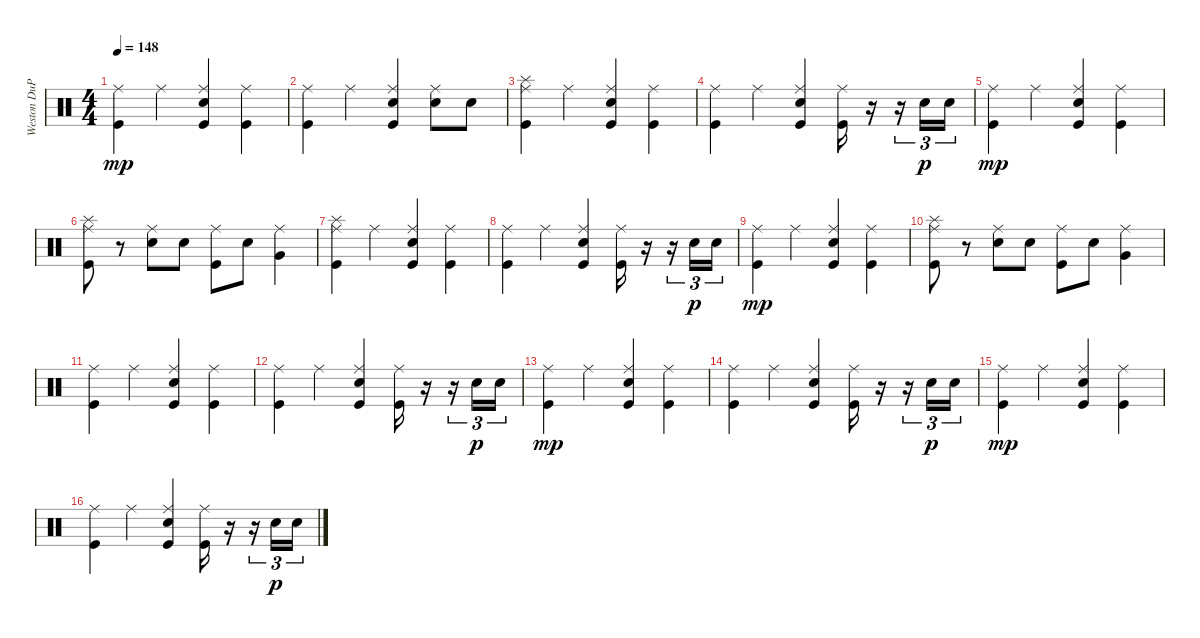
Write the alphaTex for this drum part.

\track ("Weston DuPree" "Weston DuP") {instrument percussion}
\staff {score}
\articulation defaults
\ts (4 4)
\tempo 148
\clef neutral
\ks c
("Kick (hit)" "Ride (middle)").4{dy mp} "Ride (middle)".4 ("Electric Snare (hit)" "Kick (hit)" "Ride (middle)").4 ("Ride (middle)" "Kick (hit)").4 |
("Ride (middle)" "Kick (hit)").4 "Ride (middle)".4 ("Ride (middle)" "Kick (hit)" "Electric Snare (hit)").4 ("Ride (middle)" "Electric Snare (hit)").8 "Electric Snare (hit)".8 |
("Splash (hit)" "Kick (hit)" "Ride (middle)").4 "Ride (middle)".4 ("Electric Snare (hit)" "Kick (hit)" "Ride (middle)").4 ("Ride (middle)" "Kick (hit)").4 |
("Ride (middle)" "Kick (hit)").4 "Ride (middle)".4 ("Ride (middle)" "Kick (hit)" "Electric Snare (hit)").4 ("Ride (middle)" "Kick (hit)").16 r.16 r.16{tu (3 2)} "Snare (hit) 2".16{tu (3 2) dy p} "Snare (hit) 2".16{tu (3 2)} |
("Kick (hit)" "Ride (middle)").4{dy mp} "Ride (middle)".4 ("Electric Snare (hit)" "Kick (hit)" "Ride (middle)").4 ("Ride (middle)" "Kick (hit)").4 |
("Splash (hit)" "Kick (hit)" "Ride (middle)").8 r.8 ("Ride (middle)" "Electric Snare (hit)").8 "Electric Snare (hit)".8 ("Ride (middle)" "Kick (hit)").8 "Electric Snare (hit)".8 ("Ride (middle)" "Very Low Tom (hit)").4 |
("Splash (hit)" "Kick (hit)" "Ride (middle)").4 "Ride (middle)".4 ("Electric Snare (hit)" "Kick (hit)" "Ride (middle)").4 ("Ride (middle)" "Kick (hit)").4 |
("Ride (middle)" "Kick (hit)").4 "Ride (middle)".4 ("Ride (middle)" "Kick (hit)" "Electric Snare (hit)").4 ("Ride (middle)" "Kick (hit)").16 r.16 r.16{tu (3 2)} "Snare (hit) 2".16{tu (3 2) dy p} "Snare (hit) 2".16{tu (3 2)} |
("Kick (hit)" "Ride (middle)").4{dy mp} "Ride (middle)".4 ("Electric Snare (hit)" "Kick (hit)" "Ride (middle)").4 ("Ride (middle)" "Kick (hit)").4 |
("Splash (hit)" "Kick (hit)" "Ride (middle)").8 r.8 ("Ride (middle)" "Electric Snare (hit)").8 "Electric Snare (hit)".8 ("Ride (middle)" "Kick (hit)").8 "Electric Snare (hit)".8 ("Ride (middle)" "Very Low Tom (hit)").4 |
("Kick (hit)" "Ride (middle)").4 "Ride (middle)".4 ("Electric Snare (hit)" "Kick (hit)" "Ride (middle)").4 ("Ride (middle)" "Kick (hit)").4 |
("Ride (middle)" "Kick (hit)").4 "Ride (middle)".4 ("Ride (middle)" "Kick (hit)" "Electric Snare (hit)").4 ("Ride (middle)" "Kick (hit)").16 r.16 r.16{tu (3 2)} "Snare (hit) 2".16{tu (3 2) dy p} "Snare (hit) 2".16{tu (3 2)} |
("Kick (hit)" "Ride (middle)").4{dy mp} "Ride (middle)".4 ("Electric Snare (hit)" "Kick (hit)" "Ride (middle)").4 ("Ride (middle)" "Kick (hit)").4 |
("Ride (middle)" "Kick (hit)").4 "Ride (middle)".4 ("Ride (middle)" "Kick (hit)" "Electric Snare (hit)").4 ("Ride (middle)" "Kick (hit)").16 r.16 r.16{tu (3 2)} "Snare (hit) 2".16{tu (3 2) dy p} "Snare (hit) 2".16{tu (3 2)} |
("Kick (hit)" "Ride (middle)").4{dy mp} "Ride (middle)".4 ("Electric Snare (hit)" "Kick (hit)" "Ride (middle)").4 ("Ride (middle)" "Kick (hit)").4 |
("Ride (middle)" "Kick (hit)").4 "Ride (middle)".4 ("Ride (middle)" "Kick (hit)" "Electric Snare (hit)").4 ("Ride (middle)" "Kick (hit)").16 r.16 r.16{tu (3 2)} "Snare (hit) 2".16{tu (3 2) dy p} "Snare (hit) 2".16{tu (3 2)}
